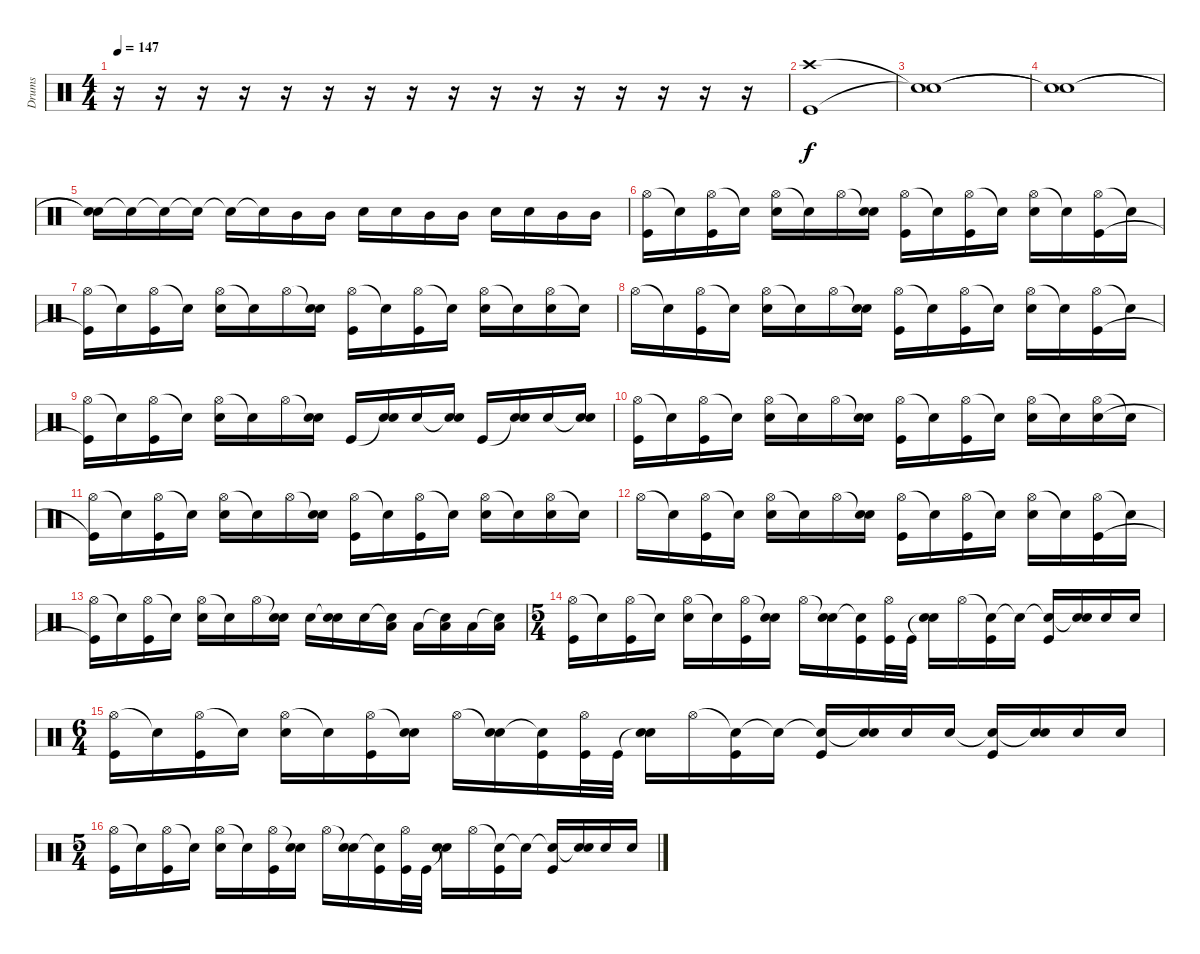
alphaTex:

\track ("Drums" "Drums") {instrument percussion}
\staff {score}
\articulation defaults
\ts (4 4)
\tempo 147
\clef neutral
\ks c
r.16{dy f} r.16 r.16 r.16 r.16 r.16 r.16 r.16 r.16 r.16 r.16 r.16 r.16 r.16 r.16 r.16 |
("Crash high (hit)" "Kick (hit)").1 |
("Snare (hit)"{t} "Snare (hit)"{t}).1 |
("Snare (hit)"{t} "Snare (hit)"{t}).1 |
("Snare (hit)"{t} "Snare (hit)"{t}).16 "Snare (hit)"{t}.16 "Snare (hit)"{t}.16 "Snare (hit)"{t}.16 "Snare (hit)"{t}.16 "Snare (hit)"{t}.16 "Mid Tom (hit)".16 "Mid Tom (hit)".16 "Electric Snare (hit)".16 "Electric Snare (hit)".16 "Mid Tom (hit)".16 "Mid Tom (hit)".16 "Electric Snare (hit)".16 "Electric Snare (hit)".16 "Mid Tom (hit)".16 "Mid Tom (hit)".16 |
("Hi-Hat (open)" "Kick (hit)").16 "Snare (hit)"{t}.16 ("Hi-Hat (open)" "Kick (hit)").16 "Snare (hit)"{t}.16 ("Hi-Hat (open)" "Electric Snare (hit)").16 "Snare (hit)"{t}.16 "Hi-Hat (open)".16 ("Snare (hit)"{t} "Electric Snare (hit)").16 ("Hi-Hat (open)" "Kick (hit)").16 "Snare (hit)"{t}.16 ("Hi-Hat (open)" "Kick (hit)").16 "Snare (hit)"{t}.16 ("Hi-Hat (open)" "Electric Snare (hit)").16 "Snare (hit)"{t}.16 ("Hi-Hat (open)" "Kick (hit)").16 "Snare (hit)"{t}.16 |
("Hi-Hat (open)" "Kick (hit)"{t}).16 "Snare (hit)"{t}.16 ("Hi-Hat (open)" "Kick (hit)").16 "Snare (hit)"{t}.16 ("Hi-Hat (open)" "Electric Snare (hit)").16 "Snare (hit)"{t}.16 "Hi-Hat (open)".16 ("Snare (hit)"{t} "Electric Snare (hit)").16 ("Hi-Hat (open)" "Kick (hit)").16 "Snare (hit)"{t}.16 ("Hi-Hat (open)" "Kick (hit)").16 "Snare (hit)"{t}.16 ("Hi-Hat (open)" "Electric Snare (hit)").16 "Snare (hit)"{t}.16 ("Hi-Hat (open)" "Electric Snare (hit)").16 "Snare (hit)"{t}.16 |
"Hi-Hat (open)".16 "Snare (hit)"{t}.16 ("Hi-Hat (open)" "Kick (hit)").16 "Snare (hit)"{t}.16 ("Hi-Hat (open)" "Electric Snare (hit)").16 "Snare (hit)"{t}.16 "Hi-Hat (open)".16 ("Snare (hit)"{t} "Electric Snare (hit)").16 ("Hi-Hat (open)" "Kick (hit)").16 "Snare (hit)"{t}.16 ("Hi-Hat (open)" "Kick (hit)").16 "Snare (hit)"{t}.16 ("Hi-Hat (open)" "Electric Snare (hit)").16 "Snare (hit)"{t}.16 ("Hi-Hat (open)" "Kick (hit)").16 "Snare (hit)"{t}.16 |
("Hi-Hat (open)" "Kick (hit)"{t}).16 "Snare (hit)"{t}.16 ("Hi-Hat (open)" "Kick (hit)").16 "Snare (hit)"{t}.16 ("Hi-Hat (open)" "Electric Snare (hit)").16 "Snare (hit)"{t}.16 "Hi-Hat (open)".16 ("Snare (hit)"{t} "Electric Snare (hit)").16 "Kick (hit)".16 ("Snare (hit)"{t} "Electric Snare (hit)").16 "Electric Snare (hit)".16 ("Snare (hit)"{t} "Electric Snare (hit)").16 "Kick (hit)".16 ("Snare (hit)"{t} "Electric Snare (hit)").16 "Electric Snare (hit)".16 ("Snare (hit)"{t} "Electric Snare (hit)").16 |
("Hi-Hat (open)" "Kick (hit)").16 "Snare (hit)"{t}.16 ("Hi-Hat (open)" "Kick (hit)").16 "Snare (hit)"{t}.16 ("Hi-Hat (open)" "Electric Snare (hit)").16 "Snare (hit)"{t}.16 "Hi-Hat (open)".16 ("Snare (hit)"{t} "Electric Snare (hit)").16 ("Hi-Hat (open)" "Kick (hit)").16 "Snare (hit)"{t}.16 ("Hi-Hat (open)" "Kick (hit)").16 "Snare (hit)"{t}.16 ("Hi-Hat (open)" "Electric Snare (hit)").16 "Snare (hit)"{t}.16 ("Hi-Hat (open)" "Electric Snare (hit)").16 "Snare (hit)"{t}.16 |
("Hi-Hat (open)" "Kick (hit)"{t}).16 "Snare (hit)"{t}.16 ("Hi-Hat (open)" "Kick (hit)").16 "Snare (hit)"{t}.16 ("Hi-Hat (open)" "Electric Snare (hit)").16 "Snare (hit)"{t}.16 "Hi-Hat (open)".16 ("Snare (hit)"{t} "Electric Snare (hit)").16 ("Hi-Hat (open)" "Kick (hit)").16 "Snare (hit)"{t}.16 ("Hi-Hat (open)" "Kick (hit)").16 "Snare (hit)"{t}.16 ("Hi-Hat (open)" "Electric Snare (hit)").16 "Snare (hit)"{t}.16 ("Hi-Hat (open)" "Electric Snare (hit)").16 "Snare (hit)"{t}.16 |
"Hi-Hat (open)".16 "Snare (hit)"{t}.16 ("Hi-Hat (open)" "Kick (hit)").16 "Snare (hit)"{t}.16 ("Hi-Hat (open)" "Electric Snare (hit)").16 "Snare (hit)"{t}.16 "Hi-Hat (open)".16 ("Snare (hit)"{t} "Electric Snare (hit)").16 ("Hi-Hat (open)" "Kick (hit)").16 "Snare (hit)"{t}.16 ("Hi-Hat (open)" "Kick (hit)").16 "Snare (hit)"{t}.16 ("Hi-Hat (open)" "Electric Snare (hit)").16 "Snare (hit)"{t}.16 ("Hi-Hat (open)" "Kick (hit)").16 "Snare (hit)"{t}.16 |
("Hi-Hat (open)" "Kick (hit)"{t}).16 "Snare (hit)"{t}.16 ("Hi-Hat (open)" "Kick (hit)").16 "Snare (hit)"{t}.16 ("Hi-Hat (open)" "Electric Snare (hit)").16 "Snare (hit)"{t}.16 "Hi-Hat (open)".16 ("Snare (hit)"{t} "Electric Snare (hit)").16 "Electric Snare (hit)".16 ("Snare (hit)"{t} "Electric Snare (hit)").16 "Electric Snare (hit)".16 ("Snare (hit)"{t} "Low Tom (hit)").16 "Low Tom (hit)".16 ("Snare (hit)"{t} "Low Tom (hit)").16 "Low Tom (hit)".16 ("Snare (hit)"{t} "Low Tom (hit)").16 |
\ts (5 4)
("Hi-Hat (open)" "Kick (hit)").16 "Snare (hit)"{t}.16 ("Hi-Hat (open)" "Kick (hit)").16 "Snare (hit)"{t}.16 ("Hi-Hat (open)" "Electric Snare (hit)").16 "Snare (hit)"{t}.16 ("Hi-Hat (open)" "Kick (hit)").16 ("Snare (hit)"{t} "Electric Snare (hit)").16 "Hi-Hat (open)".16 ("Snare (hit)"{t} "Electric Snare (hit)").16 ("Snare (hit)"{t} "Kick (hit)").16 ("Hi-Hat (open)" "Kick (hit)").32 "Kick (hit)".32 ("Snare (hit)"{t} "Electric Snare (hit)").16 "Hi-Hat (open)".16 ("Snare (hit)"{t} "Kick (hit)").16 "Snare (hit)"{t}.16 ("Snare (hit)"{t} "Kick (hit)").16 ("Snare (hit)"{t} "Electric Snare (hit)").16 "Electric Snare (hit)".16 "Electric Snare (hit)".16 |
\ts (6 4)
("Hi-Hat (open)" "Kick (hit)").16 "Snare (hit)"{t}.16 ("Hi-Hat (open)" "Kick (hit)").16 "Snare (hit)"{t}.16 ("Hi-Hat (open)" "Electric Snare (hit)").16 "Snare (hit)"{t}.16 ("Hi-Hat (open)" "Kick (hit)").16 ("Snare (hit)"{t} "Electric Snare (hit)").16 "Hi-Hat (open)".16 ("Snare (hit)"{t} "Electric Snare (hit)").16 ("Snare (hit)"{t} "Kick (hit)").16 ("Hi-Hat (open)" "Kick (hit)").32 "Kick (hit)".32 ("Snare (hit)"{t} "Electric Snare (hit)").16 "Hi-Hat (open)".16 ("Snare (hit)"{t} "Kick (hit)").16 "Snare (hit)"{t}.16 ("Snare (hit)"{t} "Kick (hit)").16 ("Snare (hit)"{t} "Electric Snare (hit)").16 "Electric Snare (hit)".16 "Electric Snare (hit)".16 ("Snare (hit)"{t} "Kick (hit)").16 ("Snare (hit)"{t} "Electric Snare (hit)").16 "Electric Snare (hit)".16 "Electric Snare (hit)".16 |
\ts (5 4)
("Hi-Hat (open)" "Kick (hit)").16 "Snare (hit)"{t}.16 ("Hi-Hat (open)" "Kick (hit)").16 "Snare (hit)"{t}.16 ("Hi-Hat (open)" "Electric Snare (hit)").16 "Snare (hit)"{t}.16 ("Hi-Hat (open)" "Kick (hit)").16 ("Snare (hit)"{t} "Electric Snare (hit)").16 "Hi-Hat (open)".16 ("Snare (hit)"{t} "Electric Snare (hit)").16 ("Snare (hit)"{t} "Kick (hit)").16 ("Hi-Hat (open)" "Kick (hit)").32 "Kick (hit)".32 ("Snare (hit)"{t} "Electric Snare (hit)").16 "Hi-Hat (open)".16 ("Snare (hit)"{t} "Kick (hit)").16 "Snare (hit)"{t}.16 ("Snare (hit)"{t} "Kick (hit)").16 ("Snare (hit)"{t} "Electric Snare (hit)").16 "Electric Snare (hit)".16 "Electric Snare (hit)".16
